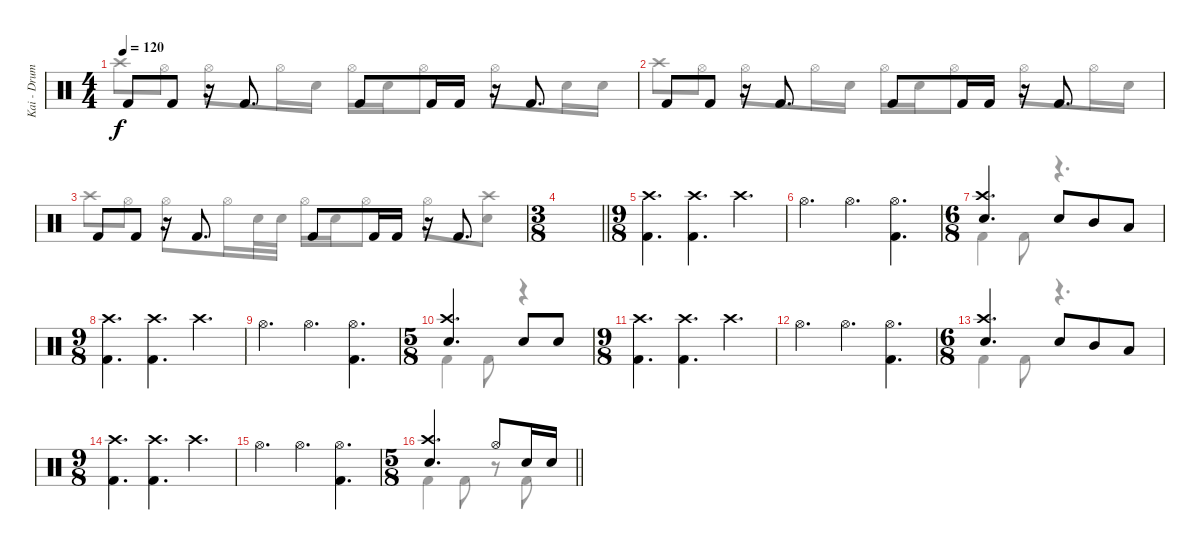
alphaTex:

\track ("Kai - Drums " "Kai - Drum") {instrument percussion}
\staff {score}
\articulation defaults
\voice
\ts (4 4)
\tempo 120
\clef neutral
\ks c "Kick (hit) 2".8{dy f} "Kick (hit) 2".8
r.16 "Kick (hit) 2".8{d} "Kick (hit) 2".8 "Kick (hit) 2".16 "Kick (hit) 2".16 r.16 "Kick (hit) 2".8{d} |
"Kick (hit) 2".8 "Kick (hit) 2".8 r.16 "Kick (hit) 2".8{d} "Kick (hit) 2".8 "Kick (hit) 2".16 "Kick (hit) 2".16 r.16 "Kick (hit) 2".8{d} |
"Kick (hit) 2".8 "Kick (hit) 2".8 r.16 "Kick (hit) 2".8{d} "Kick (hit) 2".8 "Kick (hit) 2".16 "Kick (hit) 2".16 r.16 "Kick (hit) 2".8{d} |
\ts (3 8)
\barLineRight lightlight
|
\ts (9 8)
("Crash high (hit)" "Kick (hit) 2").4{d} ("Crash high (hit)" "Kick (hit) 2").4{d} "Crash high (hit)".4{d} |
"Hi-Hat (open)".4{d} "Hi-Hat (open)".4{d} ("Hi-Hat (open)" "Kick (hit) 2").4{d} |
\ts (6 8)
("Crash high (hit)" "Electric Snare (hit)").4{d} "Electric Snare (hit)".8 "Mid Tom (hit)".8 "Low Tom (hit)".8 |
\ts (9 8)
("Crash high (hit)" "Kick (hit) 2").4{d} ("Crash high (hit)" "Kick (hit) 2").4{d} "Crash high (hit)".4{d} |
"Hi-Hat (open)".4{d} "Hi-Hat (open)".4{d} ("Hi-Hat (open)" "Kick (hit) 2").4{d} |
\ts (5 8)
("Crash high (hit)" "Electric Snare (hit)").4{d} "Electric Snare (hit)".8 "Electric Snare (hit)".8 |
\ts (9 8)
("Crash high (hit)" "Kick (hit) 2").4{d} ("Crash high (hit)" "Kick (hit) 2").4{d} "Crash high (hit)".4{d} |
"Hi-Hat (open)".4{d} "Hi-Hat (open)".4{d} ("Hi-Hat (open)" "Kick (hit) 2").4{d} |
\ts (6 8)
("Crash high (hit)" "Electric Snare (hit)").4{d} "Electric Snare (hit)".8 "Mid Tom (hit)".8 "Low Tom (hit)".8 |
\ts (9 8)
("Crash high (hit)" "Kick (hit) 2").4{d} ("Crash high (hit)" "Kick (hit) 2").4{d} "Crash high (hit)".4{d} |
"Hi-Hat (open)".4{d} "Hi-Hat (open)".4{d} ("Hi-Hat (open)" "Kick (hit) 2").4{d} |
\ts (5 8)
\barLineRight lightlight
("Crash high (hit)" "Electric Snare (hit)").4{d} "Hi-Hat (open)".8 "Electric Snare (hit)".16 "Electric Snare (hit)".16
\voice
\clef neutral
\ottava regular
\simile none
\ks c "Crash high (hit)".8{dy f} "Hi-Hat (open)".8 "Hi-Hat (open)".8 "Hi-Hat (open)".16 "Electric Snare (hit)".16 "Hi-Hat (open)".16 "Electric Snare (hit)".16 "Hi-Hat (open)".8 "Hi-Hat (open)".8 "Electric Snare (hit)".16 "Electric Snare (hit)".16
|
"Crash high (hit)".8 "Hi-Hat (open)".8 "Hi-Hat (open)".8 "Hi-Hat (open)".16 "Electric Snare (hit)".16 "Hi-Hat (open)".16 "Electric Snare (hit)".16 "Hi-Hat (open)".8 "Hi-Hat (open)".8 "Hi-Hat (open)".16 "Electric Snare (hit)".16 |
"Crash high (hit)".8 "Hi-Hat (open)".8 "Hi-Hat (open)".8 "Hi-Hat (open)".16 "Electric Snare (hit)".32 "Electric Snare (hit)".32 "Hi-Hat (open)".16 "Electric Snare (hit)".16 "Hi-Hat (open)".8 "Hi-Hat (open)".8 ("Crash high (hit)" "Electric Snare (hit)").8 |
\barLineRight lightlight
|
|
|
"Kick (hit) 2".4 "Kick (hit) 2".8 r.4{d} |
|
|
"Kick (hit) 2".4 "Kick (hit) 2".8 r.4 |
|
|
"Kick (hit) 2".4 "Kick (hit) 2".8 r.4{d} |
|
|
\barLineRight lightlight "Kick (hit) 2".4 "Kick (hit) 2".8
r.8 "Kick (hit) 2".8
